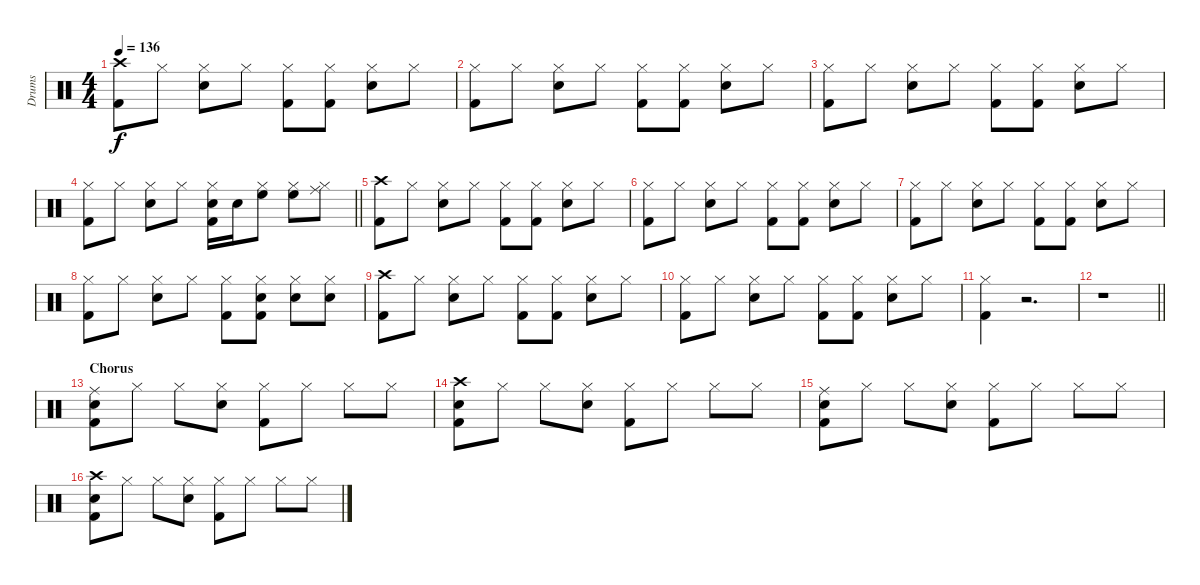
\track ("Drums" "Drums") {instrument percussion}
\staff {score}
\articulation defaults
\ts (4 4)
\tempo 136
\clef neutral
\ks c
("Crash high (hit)" "Kick (hit) 2").8{dy f} "Hi-Hat (closed)".8 ("Hi-Hat (closed)" "Electric Snare (hit)").8 "Hi-Hat (closed)".8 ("Hi-Hat (closed)" "Kick (hit) 2").8 ("Hi-Hat (closed)" "Kick (hit) 2").8 ("Hi-Hat (closed)" "Electric Snare (hit)").8 "Hi-Hat (closed)".8 |
("Hi-Hat (closed)" "Kick (hit) 2").8 "Hi-Hat (closed)".8 ("Hi-Hat (closed)" "Electric Snare (hit)").8 "Hi-Hat (closed)".8 ("Hi-Hat (closed)" "Kick (hit) 2").8 ("Hi-Hat (closed)" "Kick (hit) 2").8 ("Hi-Hat (closed)" "Electric Snare (hit)").8 "Hi-Hat (closed)".8 |
("Hi-Hat (closed)" "Kick (hit) 2").8 "Hi-Hat (closed)".8 ("Hi-Hat (closed)" "Electric Snare (hit)").8 "Hi-Hat (closed)".8 ("Hi-Hat (closed)" "Kick (hit) 2").8 ("Hi-Hat (closed)" "Kick (hit) 2").8 ("Hi-Hat (closed)" "Electric Snare (hit)").8 "Hi-Hat (closed)".8 |
\barLineRight lightlight
("Hi-Hat (closed)" "Kick (hit) 2").8 "Hi-Hat (closed)".8 ("Hi-Hat (closed)" "Electric Snare (hit)").8 "Hi-Hat (closed)".8 ("Hi-Hat (closed)" "Electric Snare (hit)" "Kick (hit) 2").16 "Electric Snare (hit)".16 ("Hi-Hat (closed)" "High Floor Tom (hit)").8 ("Hi-Hat (closed)" "High Floor Tom (hit)").8 ("Hi-Hat (closed)" "Ride (middle)").8 |
("Crash high (hit)" "Kick (hit) 2").8 "Hi-Hat (closed)".8 ("Hi-Hat (closed)" "Electric Snare (hit)").8 "Hi-Hat (closed)".8 ("Hi-Hat (closed)" "Kick (hit) 2").8 ("Hi-Hat (closed)" "Kick (hit) 2").8 ("Hi-Hat (closed)" "Electric Snare (hit)").8 "Hi-Hat (closed)".8 |
("Hi-Hat (closed)" "Kick (hit) 2").8 "Hi-Hat (closed)".8 ("Hi-Hat (closed)" "Electric Snare (hit)").8 "Hi-Hat (closed)".8 ("Hi-Hat (closed)" "Kick (hit) 2").8 ("Hi-Hat (closed)" "Kick (hit) 2").8 ("Hi-Hat (closed)" "Electric Snare (hit)").8 "Hi-Hat (closed)".8 |
("Hi-Hat (closed)" "Kick (hit) 2").8 "Hi-Hat (closed)".8 ("Hi-Hat (closed)" "Electric Snare (hit)").8 "Hi-Hat (closed)".8 ("Hi-Hat (closed)" "Kick (hit) 2").8 ("Hi-Hat (closed)" "Kick (hit) 2").8 ("Hi-Hat (closed)" "Electric Snare (hit)").8 "Hi-Hat (closed)".8 |
("Hi-Hat (closed)" "Kick (hit) 2").8 "Hi-Hat (closed)".8 ("Hi-Hat (closed)" "Electric Snare (hit)").8 "Hi-Hat (closed)".8 ("Hi-Hat (closed)" "Kick (hit) 2").8 ("Hi-Hat (closed)" "Electric Snare (hit)" "Kick (hit) 2").8 ("Hi-Hat (closed)" "Electric Snare (hit)").8 ("Hi-Hat (closed)" "Electric Snare (hit)").8 |
("Crash high (hit)" "Kick (hit) 2").8 "Hi-Hat (closed)".8 ("Hi-Hat (closed)" "Electric Snare (hit)").8 "Hi-Hat (closed)".8 ("Hi-Hat (closed)" "Kick (hit) 2").8 ("Hi-Hat (closed)" "Kick (hit) 2").8 ("Hi-Hat (closed)" "Electric Snare (hit)").8 "Hi-Hat (closed)".8 |
("Hi-Hat (closed)" "Kick (hit) 2").8 "Hi-Hat (closed)".8 ("Hi-Hat (closed)" "Electric Snare (hit)").8 "Hi-Hat (closed)".8 ("Hi-Hat (closed)" "Kick (hit) 2").8 ("Hi-Hat (closed)" "Kick (hit) 2").8 ("Hi-Hat (closed)" "Electric Snare (hit)").8 "Hi-Hat (closed)".8 |
("Hi-Hat (closed)" "Kick (hit) 2").4 r.2{d} |
\barLineRight lightlight
r.1 |
\section ("" "Chorus")
("Ride (middle)" "Electric Snare (hit)" "Kick (hit) 2").8 "Hi-Hat (closed)".8 "Hi-Hat (closed)".8 ("Hi-Hat (closed)" "Electric Snare (hit)").8 ("Hi-Hat (closed)" "Kick (hit) 2").8 "Hi-Hat (closed)".8 "Hi-Hat (closed)".8 "Hi-Hat (closed)".8 |
("Crash high (hit)" "Electric Snare (hit)" "Kick (hit) 2").8 "Hi-Hat (closed)".8 "Hi-Hat (closed)".8 ("Hi-Hat (closed)" "Electric Snare (hit)").8 ("Hi-Hat (closed)" "Kick (hit) 2").8 "Hi-Hat (closed)".8 "Hi-Hat (closed)".8 "Hi-Hat (closed)".8 |
("Ride (middle)" "Electric Snare (hit)" "Kick (hit) 2").8 "Hi-Hat (closed)".8 "Hi-Hat (closed)".8 ("Hi-Hat (closed)" "Electric Snare (hit)").8 ("Hi-Hat (closed)" "Kick (hit) 2").8 "Hi-Hat (closed)".8 "Hi-Hat (closed)".8 "Hi-Hat (closed)".8 |
("Crash high (hit)" "Electric Snare (hit)" "Kick (hit) 2").8 "Hi-Hat (closed)".8 "Hi-Hat (closed)".8 ("Hi-Hat (closed)" "Electric Snare (hit)").8 ("Hi-Hat (closed)" "Kick (hit) 2").8 "Hi-Hat (closed)".8 "Hi-Hat (closed)".8 "Hi-Hat (closed)".8
